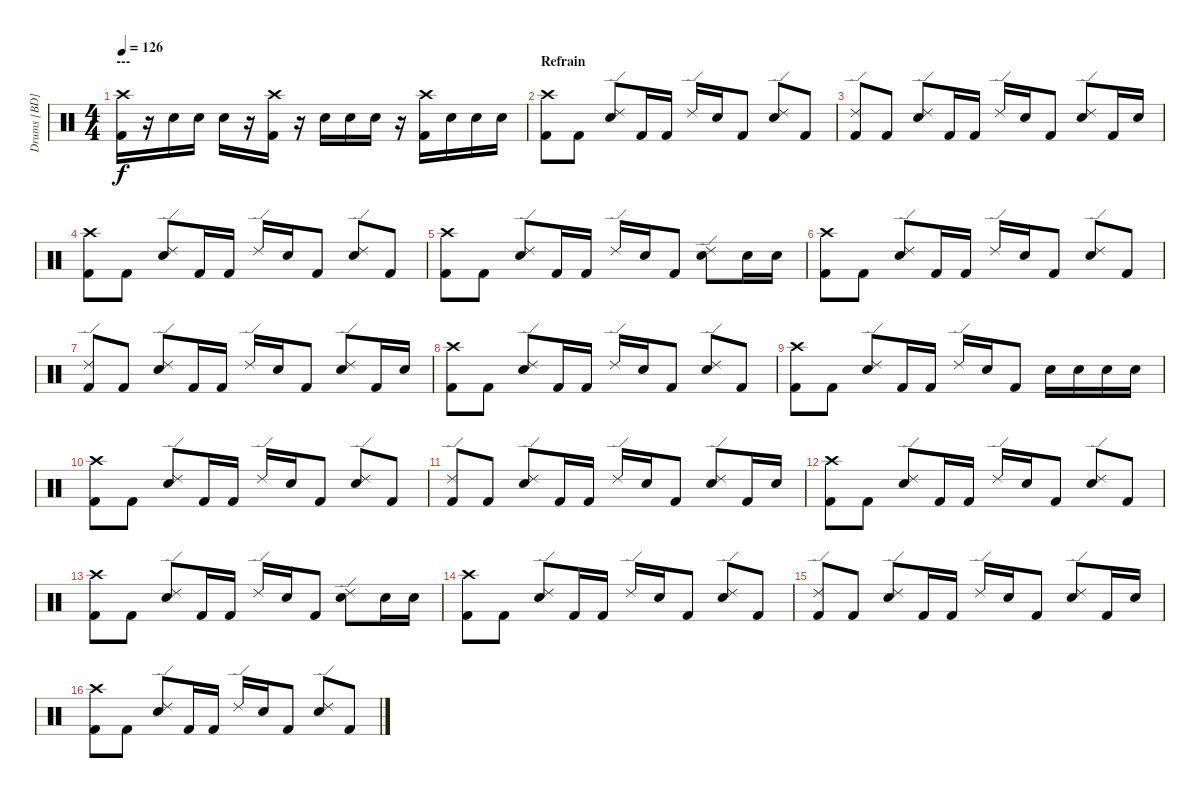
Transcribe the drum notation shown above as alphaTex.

\track ("Drums [BD]" "Drums [BD]") {instrument percussion}
\staff {score}
\articulation defaults
\ts (4 4)
\section ("" "---")
\tempo 126
\clef neutral
\ks c
("Kick (hit) 2" "Crash high (hit)").16{dy f} r.16 "Electric Snare (hit)".16 "Electric Snare (hit)".16 "Electric Snare (hit)".16 r.16 ("Kick (hit) 2" "Crash high (hit)").16 r.16 "Electric Snare (hit)".16 "Electric Snare (hit)".16 "Electric Snare (hit)".16 r.16 ("Kick (hit) 2" "Crash high (hit)").16 "Electric Snare (hit)".16 "Electric Snare (hit)".16 "Electric Snare (hit)".16 |
\section ("" "Refrain")
("Kick (hit) 2" "Crash high (hit)").8 "Kick (hit) 2".8 ("Electric Snare (hit)" "Ride (edge) 2").8 "Kick (hit) 2".16 "Kick (hit) 2".16 "Ride (edge) 2".16 "Electric Snare (hit)".16 "Kick (hit) 2".8 ("Electric Snare (hit)" "Ride (edge) 2").8 "Kick (hit) 2".8 |
("Kick (hit) 2" "Ride (edge) 2").8 "Kick (hit) 2".8 ("Electric Snare (hit)" "Ride (edge) 2").8 "Kick (hit) 2".16 "Kick (hit) 2".16 "Ride (edge) 2".16 "Electric Snare (hit)".16 "Kick (hit) 2".8 ("Electric Snare (hit)" "Ride (edge) 2").8 "Kick (hit) 2".16 "Electric Snare (hit)".16 |
("Kick (hit) 2" "Crash high (hit)").8 "Kick (hit) 2".8 ("Electric Snare (hit)" "Ride (edge) 2").8 "Kick (hit) 2".16 "Kick (hit) 2".16 "Ride (edge) 2".16 "Electric Snare (hit)".16 "Kick (hit) 2".8 ("Electric Snare (hit)" "Ride (edge) 2").8 "Kick (hit) 2".8 |
("Kick (hit) 2" "Crash high (hit)").8 "Kick (hit) 2".8 ("Electric Snare (hit)" "Ride (edge) 2").8 "Kick (hit) 2".16 "Kick (hit) 2".16 "Ride (edge) 2".16 "Electric Snare (hit)".16 "Kick (hit) 2".8 ("Electric Snare (hit)" "Ride (edge) 2").8 "Electric Snare (hit)".16 "Electric Snare (hit)".16 |
("Kick (hit) 2" "Crash high (hit)").8 "Kick (hit) 2".8 ("Electric Snare (hit)" "Ride (edge) 2").8 "Kick (hit) 2".16 "Kick (hit) 2".16 "Ride (edge) 2".16 "Electric Snare (hit)".16 "Kick (hit) 2".8 ("Electric Snare (hit)" "Ride (edge) 2").8 "Kick (hit) 2".8 |
("Kick (hit) 2" "Ride (edge) 2").8 "Kick (hit) 2".8 ("Electric Snare (hit)" "Ride (edge) 2").8 "Kick (hit) 2".16 "Kick (hit) 2".16 "Ride (edge) 2".16 "Electric Snare (hit)".16 "Kick (hit) 2".8 ("Electric Snare (hit)" "Ride (edge) 2").8 "Kick (hit) 2".16 "Electric Snare (hit)".16 |
("Kick (hit) 2" "Crash high (hit)").8 "Kick (hit) 2".8 ("Electric Snare (hit)" "Ride (edge) 2").8 "Kick (hit) 2".16 "Kick (hit) 2".16 "Ride (edge) 2".16 "Electric Snare (hit)".16 "Kick (hit) 2".8 ("Electric Snare (hit)" "Ride (edge) 2").8 "Kick (hit) 2".8 |
("Kick (hit) 2" "Crash high (hit)").8 "Kick (hit) 2".8 ("Electric Snare (hit)" "Ride (edge) 2").8 "Kick (hit) 2".16 "Kick (hit) 2".16 "Ride (edge) 2".16 "Electric Snare (hit)".16 "Kick (hit) 2".8 "Electric Snare (hit)".16 "Electric Snare (hit)".16 "Electric Snare (hit)".16 "Electric Snare (hit)".16 |
("Kick (hit) 2" "Crash high (hit)").8 "Kick (hit) 2".8 ("Electric Snare (hit)" "Ride (edge) 2").8 "Kick (hit) 2".16 "Kick (hit) 2".16 "Ride (edge) 2".16 "Electric Snare (hit)".16 "Kick (hit) 2".8 ("Electric Snare (hit)" "Ride (edge) 2").8 "Kick (hit) 2".8 |
("Kick (hit) 2" "Ride (edge) 2").8 "Kick (hit) 2".8 ("Electric Snare (hit)" "Ride (edge) 2").8 "Kick (hit) 2".16 "Kick (hit) 2".16 "Ride (edge) 2".16 "Electric Snare (hit)".16 "Kick (hit) 2".8 ("Electric Snare (hit)" "Ride (edge) 2").8 "Kick (hit) 2".16 "Electric Snare (hit)".16 |
("Kick (hit) 2" "Crash high (hit)").8 "Kick (hit) 2".8 ("Electric Snare (hit)" "Ride (edge) 2").8 "Kick (hit) 2".16 "Kick (hit) 2".16 "Ride (edge) 2".16 "Electric Snare (hit)".16 "Kick (hit) 2".8 ("Electric Snare (hit)" "Ride (edge) 2").8 "Kick (hit) 2".8 |
("Kick (hit) 2" "Crash high (hit)").8 "Kick (hit) 2".8 ("Electric Snare (hit)" "Ride (edge) 2").8 "Kick (hit) 2".16 "Kick (hit) 2".16 "Ride (edge) 2".16 "Electric Snare (hit)".16 "Kick (hit) 2".8 ("Electric Snare (hit)" "Ride (edge) 2").8 "Electric Snare (hit)".16 "Electric Snare (hit)".16 |
("Kick (hit) 2" "Crash high (hit)").8 "Kick (hit) 2".8 ("Electric Snare (hit)" "Ride (edge) 2").8 "Kick (hit) 2".16 "Kick (hit) 2".16 "Ride (edge) 2".16 "Electric Snare (hit)".16 "Kick (hit) 2".8 ("Electric Snare (hit)" "Ride (edge) 2").8 "Kick (hit) 2".8 |
("Kick (hit) 2" "Ride (edge) 2").8 "Kick (hit) 2".8 ("Electric Snare (hit)" "Ride (edge) 2").8 "Kick (hit) 2".16 "Kick (hit) 2".16 "Ride (edge) 2".16 "Electric Snare (hit)".16 "Kick (hit) 2".8 ("Electric Snare (hit)" "Ride (edge) 2").8 "Kick (hit) 2".16 "Electric Snare (hit)".16 |
("Kick (hit) 2" "Crash high (hit)").8 "Kick (hit) 2".8 ("Electric Snare (hit)" "Ride (edge) 2").8 "Kick (hit) 2".16 "Kick (hit) 2".16 "Ride (edge) 2".16 "Electric Snare (hit)".16 "Kick (hit) 2".8 ("Electric Snare (hit)" "Ride (edge) 2").8 "Kick (hit) 2".8
